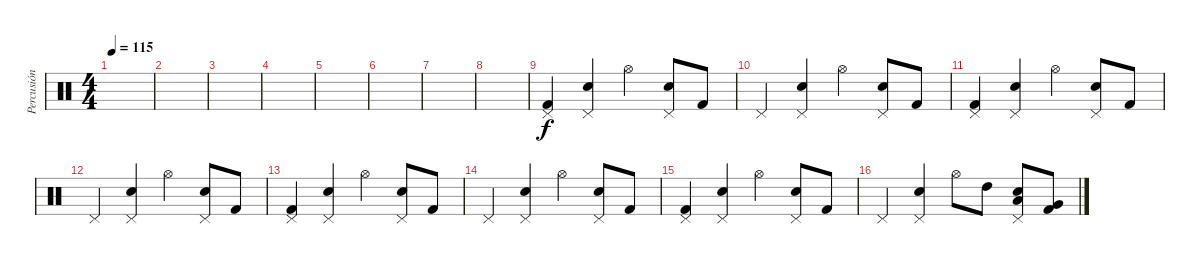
\track ("Percusión" "Percusión") {instrument percussion}
\staff {score}
\articulation defaults
\ts (4 4)
\tempo 115
\clef neutral
\ks c
|
|
|
|
|
|
|
|
("Kick (hit) 2" "Pedal Hi-Hat (hit)").4 ("Snare (hit) 2" "Pedal Hi-Hat (hit)").4 "Hi-Hat (open)".4 ("Snare (hit) 2" "Pedal Hi-Hat (hit)").8 "Kick (hit) 2".8 |
"Pedal Hi-Hat (hit)".4 ("Snare (hit) 2" "Pedal Hi-Hat (hit)").4 "Hi-Hat (open)".4 ("Snare (hit) 2" "Pedal Hi-Hat (hit)").8 "Kick (hit) 2".8 |
("Kick (hit) 2" "Pedal Hi-Hat (hit)").4 ("Snare (hit) 2" "Pedal Hi-Hat (hit)").4 "Hi-Hat (open)".4 ("Snare (hit) 2" "Pedal Hi-Hat (hit)").8 "Kick (hit) 2".8 |
"Pedal Hi-Hat (hit)".4 ("Snare (hit) 2" "Pedal Hi-Hat (hit)").4 "Hi-Hat (open)".4 ("Snare (hit) 2" "Pedal Hi-Hat (hit)").8 "Kick (hit) 2".8 |
("Kick (hit) 2" "Pedal Hi-Hat (hit)").4 ("Snare (hit) 2" "Pedal Hi-Hat (hit)").4 "Hi-Hat (open)".4 ("Snare (hit) 2" "Pedal Hi-Hat (hit)").8 "Kick (hit) 2".8 |
"Pedal Hi-Hat (hit)".4 ("Snare (hit) 2" "Pedal Hi-Hat (hit)").4 "Hi-Hat (open)".4 ("Snare (hit) 2" "Pedal Hi-Hat (hit)").8 "Kick (hit) 2".8 |
("Kick (hit) 2" "Pedal Hi-Hat (hit)").4 ("Snare (hit) 2" "Pedal Hi-Hat (hit)").4 "Hi-Hat (open)".4 ("Snare (hit) 2" "Pedal Hi-Hat (hit)").8 "Kick (hit) 2".8 |
"Pedal Hi-Hat (hit)".4 ("Snare (hit) 2" "Pedal Hi-Hat (hit)").4 "Hi-Hat (open)".8 "High Tom (hit)".8 ("Snare (hit) 2" "Low Tom (hit)" "Pedal Hi-Hat (hit)").8 ("Kick (hit) 2" "Very Low Tom (hit)").8
